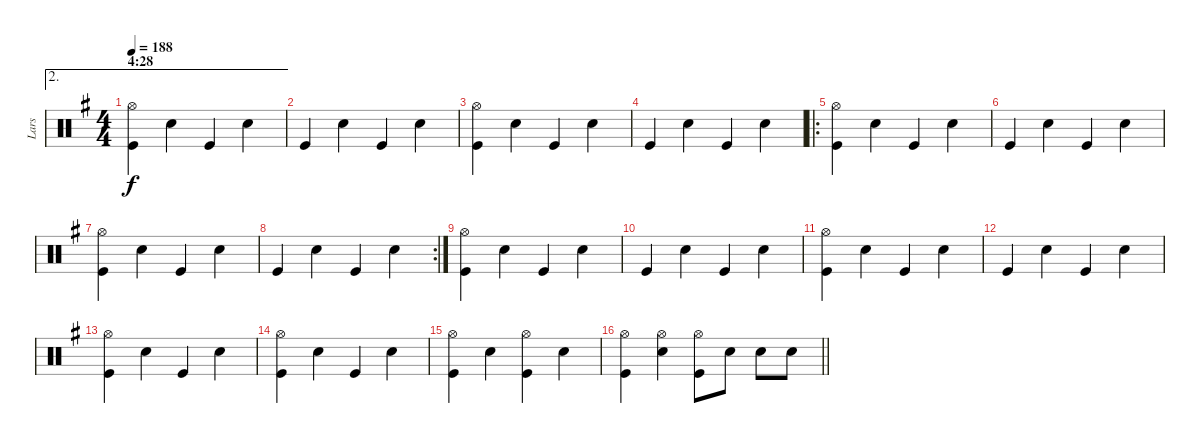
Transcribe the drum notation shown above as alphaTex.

\track ("Lars" "Lars") {instrument percussion}
\staff {score}
\articulation defaults
\ae 2
\ts (4 4)
\section ("" "4:28")
\tempo 188
\clef neutral
\ks eminor
("Hi-Hat (open)" "Kick (hit)").4{dy f} "Snare (hit) 2".4 "Kick (hit)".4 "Snare (hit) 2".4 |
"Kick (hit)".4 "Snare (hit) 2".4 "Kick (hit)".4 "Snare (hit) 2".4 |
("Hi-Hat (open)" "Kick (hit)").4 "Snare (hit) 2".4 "Kick (hit)".4 "Snare (hit) 2".4 |
"Kick (hit)".4 "Snare (hit) 2".4 "Kick (hit)".4 "Snare (hit) 2".4 |
\ro
("Hi-Hat (open)" "Kick (hit)").4 "Snare (hit) 2".4 "Kick (hit)".4 "Snare (hit) 2".4 |
"Kick (hit)".4 "Snare (hit) 2".4 "Kick (hit)".4 "Snare (hit) 2".4 |
("Hi-Hat (open)" "Kick (hit)").4 "Snare (hit) 2".4 "Kick (hit)".4 "Snare (hit) 2".4 |
\rc 2 "Kick (hit)".4 "Snare (hit) 2".4 "Kick (hit)".4 "Snare (hit) 2".4
|
("Hi-Hat (open)" "Kick (hit)").4 "Snare (hit) 2".4 "Kick (hit)".4 "Snare (hit) 2".4 |
"Kick (hit)".4 "Snare (hit) 2".4 "Kick (hit)".4 "Snare (hit) 2".4 |
("Hi-Hat (open)" "Kick (hit)").4 "Snare (hit) 2".4 "Kick (hit)".4 "Snare (hit) 2".4 |
"Kick (hit)".4 "Snare (hit) 2".4 "Kick (hit)".4 "Snare (hit) 2".4 |
("Hi-Hat (open)" "Kick (hit)").4 "Snare (hit) 2".4 "Kick (hit)".4 "Snare (hit) 2".4 |
("Hi-Hat (open)" "Kick (hit)").4 "Snare (hit) 2".4 "Kick (hit)".4 "Snare (hit) 2".4 |
("Hi-Hat (open)" "Kick (hit)").4 "Snare (hit) 2".4 ("Hi-Hat (open)" "Kick (hit)").4 "Snare (hit) 2".4 |
\barLineRight lightlight
("Hi-Hat (open)" "Kick (hit)").4 ("Hi-Hat (open)" "Snare (hit) 2").4 ("Hi-Hat (open)" "Kick (hit)").8 "Snare (hit) 2".8 "Snare (hit) 2".8 "Snare (hit) 2".8
